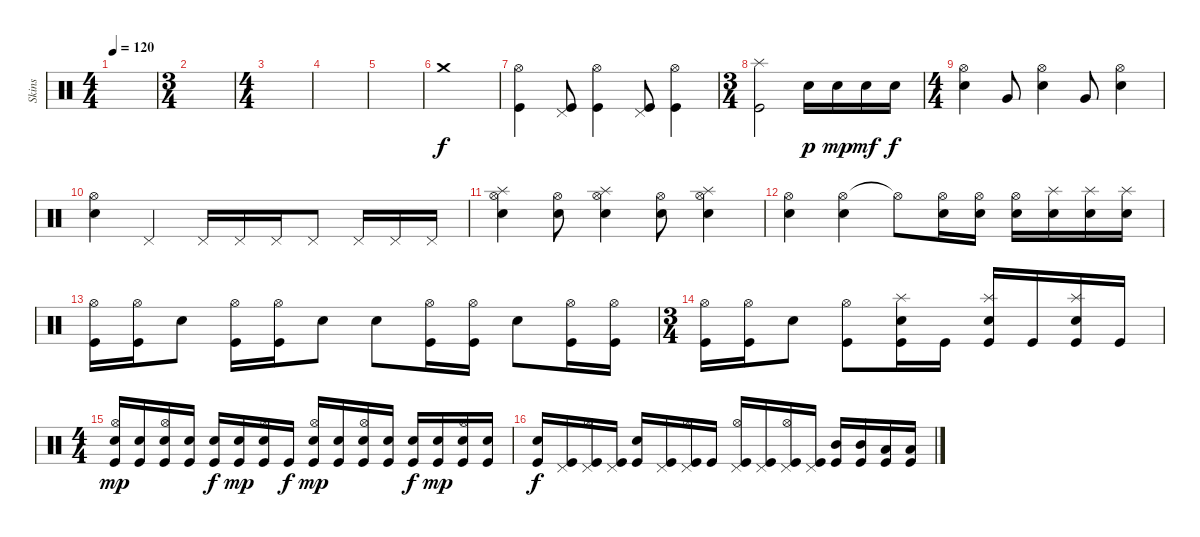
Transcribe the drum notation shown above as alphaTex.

\track ("Skins" "Skins") {instrument percussion}
\staff {score}
\articulation defaults
\ts (4 4)
\tempo 120
\tempo 130
\tempo 120
\clef neutral
\ks c
|
\ts (3 4)
|
\ts (4 4)
|
|
|
"Crash medium (hit)".1 |
("Kick (hit)" "Hi-Hat (open)").4 ("Kick (hit)" "Pedal Hi-Hat (hit)").8 ("Kick (hit)" "Hi-Hat (open)").4 ("Kick (hit)" "Pedal Hi-Hat (hit)").8 ("Kick (hit)" "Hi-Hat (open)").4 |
\ts (3 4)
("Kick (hit)" "Splash (hit)").2 "Snare (hit) 2".16{dy p} "Snare (hit) 2".16{dy mp} "Snare (hit) 2".16{dy mf} "Snare (hit) 2".16{dy f} |
\ts (4 4)
("Snare (hit) 2" "Hi-Hat (open)").4 "Very Low Tom (hit)".8 ("Snare (hit) 2" "Hi-Hat (open)").4 "Very Low Tom (hit)".8 ("Snare (hit) 2" "Hi-Hat (open)").4 |
("Snare (hit) 2" "Hi-Hat (open)").4 "Pedal Hi-Hat (hit)".4 "Pedal Hi-Hat (hit)".16 "Pedal Hi-Hat (hit)".16 "Pedal Hi-Hat (hit)".16 "Pedal Hi-Hat (hit)".8 "Pedal Hi-Hat (hit)".16 "Pedal Hi-Hat (hit)".16 "Pedal Hi-Hat (hit)".16 |
("Snare (hit) 2" "Splash (hit)" "Hi-Hat (open)").4 ("Snare (hit) 2" "Hi-Hat (open)").8 ("Snare (hit) 2" "Splash (hit)" "Hi-Hat (open)").4 ("Snare (hit) 2" "Hi-Hat (open)").8 ("Snare (hit) 2" "Splash (hit)" "Hi-Hat (open)").4 |
("Hi-Hat (open)" "Snare (hit) 2").4 ("Hi-Hat (open)" "Snare (hit) 2").4 "Hi-Hat (open)"{t}.8 ("Snare (hit) 2" "Hi-Hat (open)").16 ("Snare (hit) 2" "Hi-Hat (open)").16 ("Snare (hit) 2" "Hi-Hat (open)").16 ("Snare (hit) 2" "Splash (hit)").16 ("Snare (hit) 2" "Splash (hit)").16 ("Snare (hit) 2" "Splash (hit)").16 |
("Kick (hit)" "Hi-Hat (open)").16 ("Kick (hit)" "Hi-Hat (open)").16 "Snare (hit) 2".8 ("Kick (hit)" "Hi-Hat (open)").16 ("Kick (hit)" "Hi-Hat (open)").16 "Snare (hit) 2".8 "Snare (hit) 2".8 ("Kick (hit)" "Hi-Hat (open)").16 ("Kick (hit)" "Hi-Hat (open)").16 "Snare (hit) 2".8 ("Kick (hit)" "Hi-Hat (open)").16 ("Kick (hit)" "Hi-Hat (open)").16 |
\ts (3 4)
("Kick (hit)" "Hi-Hat (open)").16 ("Kick (hit)" "Hi-Hat (open)").16 "Snare (hit) 2".8 ("Kick (hit)" "Hi-Hat (open)").8 ("Snare (hit) 2" "Splash (hit)" "Kick (hit)").16 "Kick (hit)".16 ("Snare (hit) 2" "Splash (hit)" "Kick (hit)").16 "Kick (hit)".16 ("Snare (hit) 2" "Splash (hit)" "Kick (hit)").16 "Kick (hit)".16 |
\ts (4 4)
("Electric Snare (hit)" "Hi-Hat (open)" "Kick (hit)").16{dy mp} ("Electric Snare (hit)" "Kick (hit)").16 ("Electric Snare (hit)" "Hi-Hat (open)" "Kick (hit)").16 ("Electric Snare (hit)" "Kick (hit)").16 ("Snare (hit) 2" "Kick (hit)").16{dy f} ("Electric Snare (hit)" "Kick (hit)").16{dy mp} ("Electric Snare (hit)" "Hi-Hat (open)" "Kick (hit)").16 "Kick (hit)".16{dy f} ("Electric Snare (hit)" "Hi-Hat (open)" "Kick (hit)").16{dy mp} ("Electric Snare (hit)" "Kick (hit)").16 ("Electric Snare (hit)" "Hi-Hat (open)" "Kick (hit)").16 ("Electric Snare (hit)" "Kick (hit)").16 ("Snare (hit) 2" "Kick (hit)").16{dy f} ("Electric Snare (hit)" "Kick (hit)").16{dy mp} ("Electric Snare (hit)" "Hi-Hat (open)" "Kick (hit)").16 ("Electric Snare (hit)" "Kick (hit)").16 |
("Snare (hit) 2" "Kick (hit)").16{dy f} ("Pedal Hi-Hat (hit)" "Kick (hit)").16 ("Pedal Hi-Hat (hit)" "Hi-Hat (open)" "Kick (hit)").16 ("Pedal Hi-Hat (hit)" "Kick (hit)").16 ("Snare (hit) 2" "Kick (hit)").16 ("Pedal Hi-Hat (hit)" "Kick (hit)").16 ("Pedal Hi-Hat (hit)" "Hi-Hat (open)" "Kick (hit)").16 "Kick (hit)".16 ("Pedal Hi-Hat (hit)" "Hi-Hat (open)" "Kick (hit)").16 ("Pedal Hi-Hat (hit)" "Kick (hit)").16 ("Pedal Hi-Hat (hit)" "Hi-Hat (open)" "Kick (hit)").16 ("Pedal Hi-Hat (hit)" "Kick (hit)").16 ("Mid Tom (hit)" "Kick (hit)").16 ("Mid Tom (hit)" "Kick (hit)").16 ("Low Tom (hit)" "Kick (hit)").16 ("Low Tom (hit)" "Kick (hit)").16
